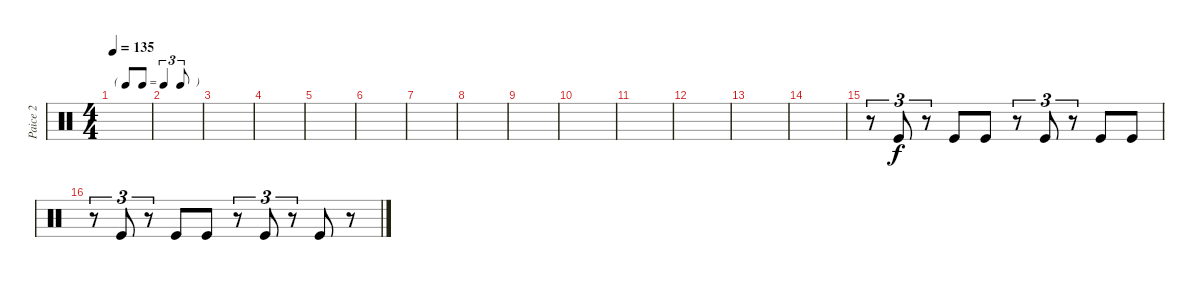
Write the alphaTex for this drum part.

\track ("Paice 2" "Paice 2") {instrument percussion}
\staff {score}
\articulation defaults
\ts (4 4)
\tf triplet8th
\tempo 135
\clef neutral
\ks c
|
|
|
|
|
|
|
|
|
|
|
|
|
|
r.8{tu (3 2)} "Kick (hit)".8{tu (3 2)} r.8{tu (3 2)} "Kick (hit)".8 "Kick (hit)".8 r.8{tu (3 2)} "Kick (hit)".8{tu (3 2)} r.8{tu (3 2)} "Kick (hit)".8 "Kick (hit)".8 |
r.8{tu (3 2)} "Kick (hit)".8{tu (3 2)} r.8{tu (3 2)} "Kick (hit)".8 "Kick (hit)".8 r.8{tu (3 2)} "Kick (hit)".8{tu (3 2)} r.8{tu (3 2)} "Kick (hit)".8 r.8
